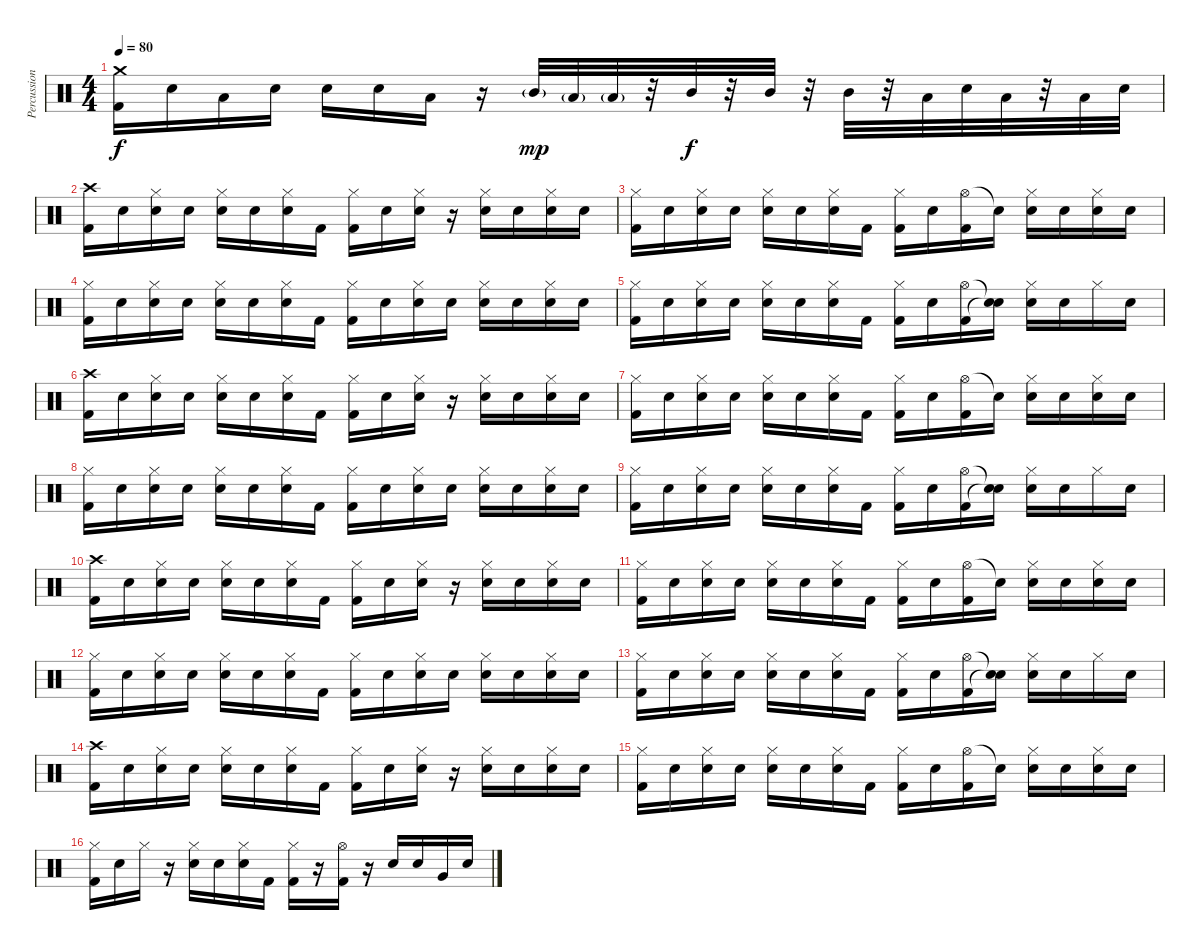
\track ("Percussion" "Percussion") {instrument percussion}
\staff {score}
\articulation defaults
\ts (4 4)
\tempo 80
\clef neutral
\ks c
("Crash medium (hit)" "Kick (hit) 2").16{dy f} "Snare (hit)".16 "Low Tom (hit)".16 "Snare (hit)".16 "Snare (hit) 2".16 "Snare (hit) 2".16 "Low Tom (hit)".16 r.16 "Mid Tom (hit)"{g}.32{dy mp} "Low Tom (hit)"{g}.32 "Low Tom (hit)"{g}.32 r.32 "Mid Tom (hit)".32{dy f} r.32 "Mid Tom (hit)".32 r.32 "Mid Tom (hit)".32 r.32 "Low Tom (hit)".32 "Snare (hit)".32 "Low Tom (hit)".32 r.32 "Low Tom (hit)".32 "Snare (hit)".32 |
("Crash high (hit)" "Kick (hit) 2").16 "Snare (hit)".16 ("Hi-Hat (closed)" "Snare (hit)").16 "Snare (hit)".16 ("Hi-Hat (closed)" "Snare (hit) 2").16 "Snare (hit)".16 ("Hi-Hat (closed)" "Snare (hit)").16 "Kick (hit) 2".16 ("Hi-Hat (closed)" "Kick (hit) 2").16 "Snare (hit)".16 ("Hi-Hat (closed)" "Snare (hit)").16 r.16 ("Hi-Hat (closed)" "Snare (hit) 2").16 "Snare (hit)".16 ("Hi-Hat (closed)" "Snare (hit)").16 "Snare (hit)".16 |
("Hi-Hat (closed)" "Kick (hit) 2").16 "Snare (hit)".16 ("Hi-Hat (closed)" "Snare (hit)").16 "Snare (hit)".16 ("Hi-Hat (closed)" "Snare (hit) 2").16 "Snare (hit)".16 ("Hi-Hat (closed)" "Snare (hit)").16 "Kick (hit) 2".16 ("Hi-Hat (closed)" "Kick (hit) 2").16 "Snare (hit)".16 ("Hi-Hat (open)" "Kick (hit) 2").16 "Snare (hit)"{t}.16 ("Hi-Hat (closed)" "Snare (hit) 2").16 "Snare (hit)".16 ("Hi-Hat (closed)" "Snare (hit)").16 "Snare (hit)".16 |
("Hi-Hat (closed)" "Kick (hit) 2").16 "Snare (hit)".16 ("Hi-Hat (closed)" "Snare (hit)").16 "Snare (hit)".16 ("Hi-Hat (closed)" "Snare (hit) 2").16 "Snare (hit)".16 ("Hi-Hat (closed)" "Snare (hit)").16 "Kick (hit) 2".16 ("Hi-Hat (closed)" "Kick (hit) 2").16 "Snare (hit)".16 ("Hi-Hat (closed)" "Snare (hit)").16 "Snare (hit)".16 ("Hi-Hat (closed)" "Snare (hit) 2").16 "Snare (hit)".16 ("Hi-Hat (closed)" "Snare (hit)").16 "Snare (hit)".16 |
("Hi-Hat (closed)" "Kick (hit) 2").16 "Snare (hit)".16 ("Hi-Hat (closed)" "Snare (hit)").16 "Snare (hit)".16 ("Hi-Hat (closed)" "Snare (hit) 2").16 "Snare (hit)".16 ("Hi-Hat (closed)" "Snare (hit)").16 "Kick (hit) 2".16 ("Hi-Hat (closed)" "Kick (hit) 2").16 "Snare (hit)".16 ("Hi-Hat (open)" "Kick (hit) 2").16 ("Snare (hit)"{t} "Snare (hit)"{t}).16 ("Hi-Hat (closed)" "Snare (hit) 2").16 "Snare (hit)".16 "Hi-Hat (closed)".16 "Snare (hit)".16 |
("Crash high (hit)" "Kick (hit) 2").16 "Snare (hit)".16 ("Hi-Hat (closed)" "Snare (hit)").16 "Snare (hit)".16 ("Hi-Hat (closed)" "Snare (hit) 2").16 "Snare (hit)".16 ("Hi-Hat (closed)" "Snare (hit)").16 "Kick (hit) 2".16 ("Hi-Hat (closed)" "Kick (hit) 2").16 "Snare (hit)".16 ("Hi-Hat (closed)" "Snare (hit)").16 r.16 ("Hi-Hat (closed)" "Snare (hit) 2").16 "Snare (hit)".16 ("Hi-Hat (closed)" "Snare (hit)").16 "Snare (hit)".16 |
("Hi-Hat (closed)" "Kick (hit) 2").16 "Snare (hit)".16 ("Hi-Hat (closed)" "Snare (hit)").16 "Snare (hit)".16 ("Hi-Hat (closed)" "Snare (hit) 2").16 "Snare (hit)".16 ("Hi-Hat (closed)" "Snare (hit)").16 "Kick (hit) 2".16 ("Hi-Hat (closed)" "Kick (hit) 2").16 "Snare (hit)".16 ("Hi-Hat (open)" "Kick (hit) 2").16 "Snare (hit)"{t}.16 ("Hi-Hat (closed)" "Snare (hit) 2").16 "Snare (hit)".16 ("Hi-Hat (closed)" "Snare (hit)").16 "Snare (hit)".16 |
("Hi-Hat (closed)" "Kick (hit) 2").16 "Snare (hit)".16 ("Hi-Hat (closed)" "Snare (hit)").16 "Snare (hit)".16 ("Hi-Hat (closed)" "Snare (hit) 2").16 "Snare (hit)".16 ("Hi-Hat (closed)" "Snare (hit)").16 "Kick (hit) 2".16 ("Hi-Hat (closed)" "Kick (hit) 2").16 "Snare (hit)".16 ("Hi-Hat (closed)" "Snare (hit)").16 "Snare (hit)".16 ("Hi-Hat (closed)" "Snare (hit) 2").16 "Snare (hit)".16 ("Hi-Hat (closed)" "Snare (hit)").16 "Snare (hit)".16 |
("Hi-Hat (closed)" "Kick (hit) 2").16 "Snare (hit)".16 ("Hi-Hat (closed)" "Snare (hit)").16 "Snare (hit)".16 ("Hi-Hat (closed)" "Snare (hit) 2").16 "Snare (hit)".16 ("Hi-Hat (closed)" "Snare (hit)").16 "Kick (hit) 2".16 ("Hi-Hat (closed)" "Kick (hit) 2").16 "Snare (hit)".16 ("Hi-Hat (open)" "Kick (hit) 2").16 ("Snare (hit)"{t} "Snare (hit)"{t}).16 ("Hi-Hat (closed)" "Snare (hit) 2").16 "Snare (hit)".16 "Hi-Hat (closed)".16 "Snare (hit)".16 |
("Crash high (hit)" "Kick (hit) 2").16 "Snare (hit)".16 ("Hi-Hat (closed)" "Snare (hit)").16 "Snare (hit)".16 ("Hi-Hat (closed)" "Snare (hit) 2").16 "Snare (hit)".16 ("Hi-Hat (closed)" "Snare (hit)").16 "Kick (hit) 2".16 ("Hi-Hat (closed)" "Kick (hit) 2").16 "Snare (hit)".16 ("Hi-Hat (closed)" "Snare (hit)").16 r.16 ("Hi-Hat (closed)" "Snare (hit) 2").16 "Snare (hit)".16 ("Hi-Hat (closed)" "Snare (hit)").16 "Snare (hit)".16 |
("Hi-Hat (closed)" "Kick (hit) 2").16 "Snare (hit)".16 ("Hi-Hat (closed)" "Snare (hit)").16 "Snare (hit)".16 ("Hi-Hat (closed)" "Snare (hit) 2").16 "Snare (hit)".16 ("Hi-Hat (closed)" "Snare (hit)").16 "Kick (hit) 2".16 ("Hi-Hat (closed)" "Kick (hit) 2").16 "Snare (hit)".16 ("Hi-Hat (open)" "Kick (hit) 2").16 "Snare (hit)"{t}.16 ("Hi-Hat (closed)" "Snare (hit) 2").16 "Snare (hit)".16 ("Hi-Hat (closed)" "Snare (hit)").16 "Snare (hit)".16 |
("Hi-Hat (closed)" "Kick (hit) 2").16 "Snare (hit)".16 ("Hi-Hat (closed)" "Snare (hit)").16 "Snare (hit)".16 ("Hi-Hat (closed)" "Snare (hit) 2").16 "Snare (hit)".16 ("Hi-Hat (closed)" "Snare (hit)").16 "Kick (hit) 2".16 ("Hi-Hat (closed)" "Kick (hit) 2").16 "Snare (hit)".16 ("Hi-Hat (closed)" "Snare (hit)").16 "Snare (hit)".16 ("Hi-Hat (closed)" "Snare (hit) 2").16 "Snare (hit)".16 ("Hi-Hat (closed)" "Snare (hit)").16 "Snare (hit)".16 |
("Hi-Hat (closed)" "Kick (hit) 2").16 "Snare (hit)".16 ("Hi-Hat (closed)" "Snare (hit)").16 "Snare (hit)".16 ("Hi-Hat (closed)" "Snare (hit) 2").16 "Snare (hit)".16 ("Hi-Hat (closed)" "Snare (hit)").16 "Kick (hit) 2".16 ("Hi-Hat (closed)" "Kick (hit) 2").16 "Snare (hit)".16 ("Hi-Hat (open)" "Kick (hit) 2").16 ("Snare (hit)"{t} "Snare (hit)"{t}).16 ("Hi-Hat (closed)" "Snare (hit) 2").16 "Snare (hit)".16 "Hi-Hat (closed)".16 "Snare (hit)".16 |
("Crash high (hit)" "Kick (hit) 2").16 "Snare (hit)".16 ("Hi-Hat (closed)" "Snare (hit)").16 "Snare (hit)".16 ("Hi-Hat (closed)" "Snare (hit) 2").16 "Snare (hit)".16 ("Hi-Hat (closed)" "Snare (hit)").16 "Kick (hit) 2".16 ("Hi-Hat (closed)" "Kick (hit) 2").16 "Snare (hit)".16 ("Hi-Hat (closed)" "Snare (hit)").16 r.16 ("Hi-Hat (closed)" "Snare (hit) 2").16 "Snare (hit)".16 ("Hi-Hat (closed)" "Snare (hit)").16 "Snare (hit)".16 |
("Hi-Hat (closed)" "Kick (hit) 2").16 "Snare (hit)".16 ("Hi-Hat (closed)" "Snare (hit)").16 "Snare (hit)".16 ("Hi-Hat (closed)" "Snare (hit) 2").16 "Snare (hit)".16 ("Hi-Hat (closed)" "Snare (hit)").16 "Kick (hit) 2".16 ("Hi-Hat (closed)" "Kick (hit) 2").16 "Snare (hit)".16 ("Hi-Hat (open)" "Kick (hit) 2").16 "Snare (hit)"{t}.16 ("Hi-Hat (closed)" "Snare (hit) 2").16 "Snare (hit)".16 ("Hi-Hat (closed)" "Snare (hit)").16 "Snare (hit)".16 |
("Hi-Hat (closed)" "Kick (hit) 2").16 "Snare (hit)".16 "Hi-Hat (closed)".16 r.16 ("Hi-Hat (closed)" "Snare (hit) 2").16 "Snare (hit)".16 ("Hi-Hat (closed)" "Snare (hit)").16 "Kick (hit) 2".16 ("Hi-Hat (closed)" "Kick (hit) 2").16 r.16 ("Hi-Hat (open)" "Kick (hit) 2").16 r.16 "Snare (hit) 2".16 "Snare (hit) 2".16 "Very Low Tom (hit)".16 "Snare (hit)".16
